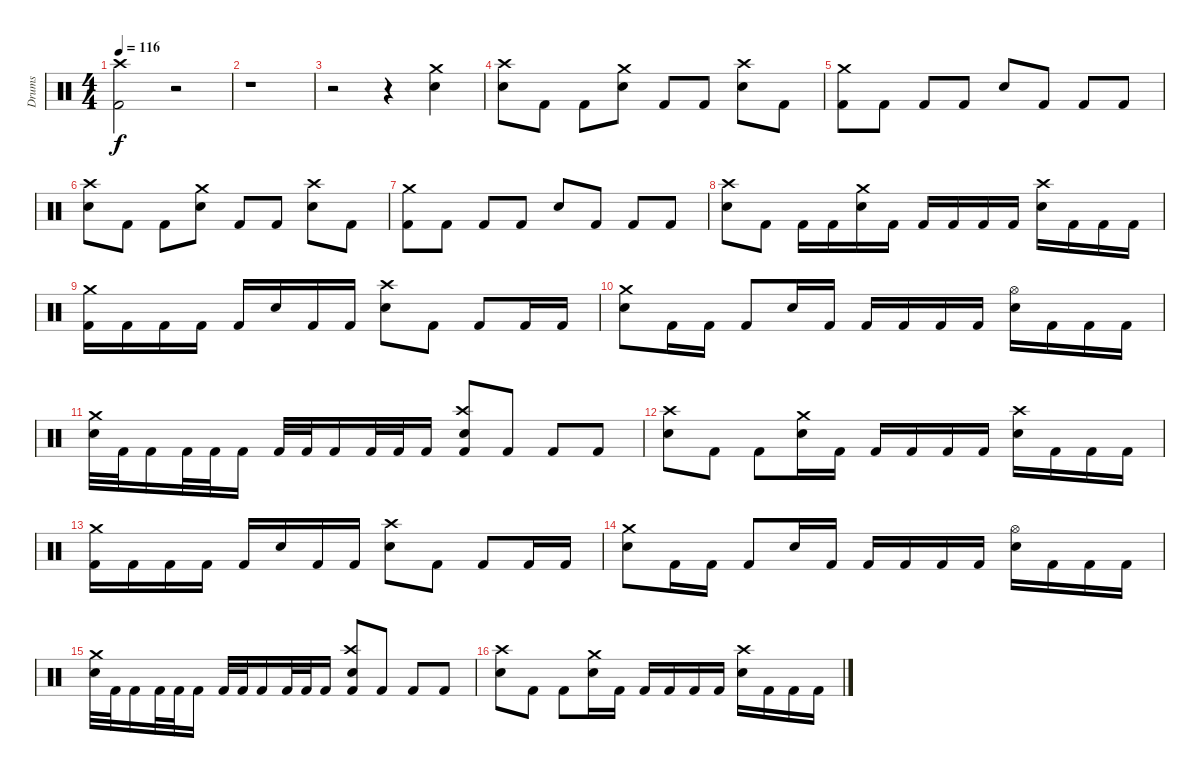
\track ("Drums" "Drums") {instrument percussion}
\staff {score}
\articulation defaults
\ts (4 4)
\tempo 116
\clef neutral
\ks c
("Kick (hit) 2" "Crash high (hit)").2{dy f} r.2 |
r.1 |
r.2 r.4 ("Snare (hit) 2" "Crash medium (hit)").4 |
("Snare (hit) 2" "Crash high (hit)").8 "Kick (hit) 2".8 "Kick (hit) 2".8 ("Snare (hit) 2" "Crash medium (hit)").8 "Kick (hit) 2".8 "Kick (hit) 2".8 ("Snare (hit) 2" "Crash high (hit)").8 "Kick (hit) 2".8 |
("Kick (hit) 2" "Crash medium (hit)").8 "Kick (hit) 2".8 "Kick (hit) 2".8 "Kick (hit) 2".8 "Snare (hit) 2".8 "Kick (hit) 2".8 "Kick (hit) 2".8 "Kick (hit) 2".8 |
("Snare (hit) 2" "Crash high (hit)").8 "Kick (hit) 2".8 "Kick (hit) 2".8 ("Snare (hit) 2" "Crash medium (hit)").8 "Kick (hit) 2".8 "Kick (hit) 2".8 ("Snare (hit) 2" "Crash high (hit)").8 "Kick (hit) 2".8 |
("Kick (hit) 2" "Crash medium (hit)").8 "Kick (hit) 2".8 "Kick (hit) 2".8 "Kick (hit) 2".8 "Snare (hit) 2".8 "Kick (hit) 2".8 "Kick (hit) 2".8 "Kick (hit) 2".8 |
("Snare (hit) 2" "Crash high (hit)").8 "Kick (hit) 2".8 "Kick (hit) 2".16 "Kick (hit) 2".16 ("Snare (hit) 2" "Crash medium (hit)").16 "Kick (hit) 2".16 "Kick (hit) 2".16 "Kick (hit) 2".16 "Kick (hit) 2".16 "Kick (hit) 2".16 ("Snare (hit) 2" "Crash high (hit)").16 "Kick (hit) 2".16 "Kick (hit) 2".16 "Kick (hit) 2".16 |
("Kick (hit) 2" "Crash medium (hit)").16 "Kick (hit) 2".16 "Kick (hit) 2".16 "Kick (hit) 2".16 "Kick (hit) 2".16 "Snare (hit) 2".16 "Kick (hit) 2".16 "Kick (hit) 2".16 ("Snare (hit) 2" "Crash high (hit)").8 "Kick (hit) 2".8 "Kick (hit) 2".8 "Kick (hit) 2".16 "Kick (hit) 2".16 |
("Snare (hit) 2" "Crash medium (hit)").8 "Kick (hit) 2".16 "Kick (hit) 2".16 "Kick (hit) 2".8 "Snare (hit) 2".16 "Kick (hit) 2".16 "Kick (hit) 2".16 "Kick (hit) 2".16 "Kick (hit) 2".16 "Kick (hit) 2".16 ("Snare (hit) 2" "Hi-Hat (open)").16 "Kick (hit) 2".16 "Kick (hit) 2".16 "Kick (hit) 2".16 |
("Snare (hit) 2" "Crash medium (hit)").32 "Kick (hit) 2".32 "Kick (hit) 2".16 "Kick (hit) 2".32 "Kick (hit) 2".32 "Kick (hit) 2".16 "Kick (hit) 2".32 "Kick (hit) 2".32 "Kick (hit) 2".16 "Kick (hit) 2".32 "Kick (hit) 2".32 "Kick (hit) 2".16 ("Kick (hit) 2" "Snare (hit) 2" "Crash high (hit)").8 "Kick (hit) 2".8 "Kick (hit) 2".8 "Kick (hit) 2".8 |
("Snare (hit) 2" "Crash high (hit)").8 "Kick (hit) 2".8 "Kick (hit) 2".8 ("Snare (hit) 2" "Crash medium (hit)").16 "Kick (hit) 2".16 "Kick (hit) 2".16 "Kick (hit) 2".16 "Kick (hit) 2".16 "Kick (hit) 2".16 ("Snare (hit) 2" "Crash high (hit)").16 "Kick (hit) 2".16 "Kick (hit) 2".16 "Kick (hit) 2".16 |
("Kick (hit) 2" "Crash medium (hit)").16 "Kick (hit) 2".16 "Kick (hit) 2".16 "Kick (hit) 2".16 "Kick (hit) 2".16 "Snare (hit) 2".16 "Kick (hit) 2".16 "Kick (hit) 2".16 ("Snare (hit) 2" "Crash high (hit)").8 "Kick (hit) 2".8 "Kick (hit) 2".8 "Kick (hit) 2".16 "Kick (hit) 2".16 |
("Snare (hit) 2" "Crash medium (hit)").8 "Kick (hit) 2".16 "Kick (hit) 2".16 "Kick (hit) 2".8 "Snare (hit) 2".16 "Kick (hit) 2".16 "Kick (hit) 2".16 "Kick (hit) 2".16 "Kick (hit) 2".16 "Kick (hit) 2".16 ("Snare (hit) 2" "Hi-Hat (open)").16 "Kick (hit) 2".16 "Kick (hit) 2".16 "Kick (hit) 2".16 |
("Snare (hit) 2" "Crash medium (hit)").32 "Kick (hit) 2".32 "Kick (hit) 2".16 "Kick (hit) 2".32 "Kick (hit) 2".32 "Kick (hit) 2".16 "Kick (hit) 2".32 "Kick (hit) 2".32 "Kick (hit) 2".16 "Kick (hit) 2".32 "Kick (hit) 2".32 "Kick (hit) 2".16 ("Kick (hit) 2" "Snare (hit) 2" "Crash high (hit)").8 "Kick (hit) 2".8 "Kick (hit) 2".8 "Kick (hit) 2".8 |
("Snare (hit) 2" "Crash high (hit)").8 "Kick (hit) 2".8 "Kick (hit) 2".8 ("Snare (hit) 2" "Crash medium (hit)").16 "Kick (hit) 2".16 "Kick (hit) 2".16 "Kick (hit) 2".16 "Kick (hit) 2".16 "Kick (hit) 2".16 ("Snare (hit) 2" "Crash high (hit)").16 "Kick (hit) 2".16 "Kick (hit) 2".16 "Kick (hit) 2".16
